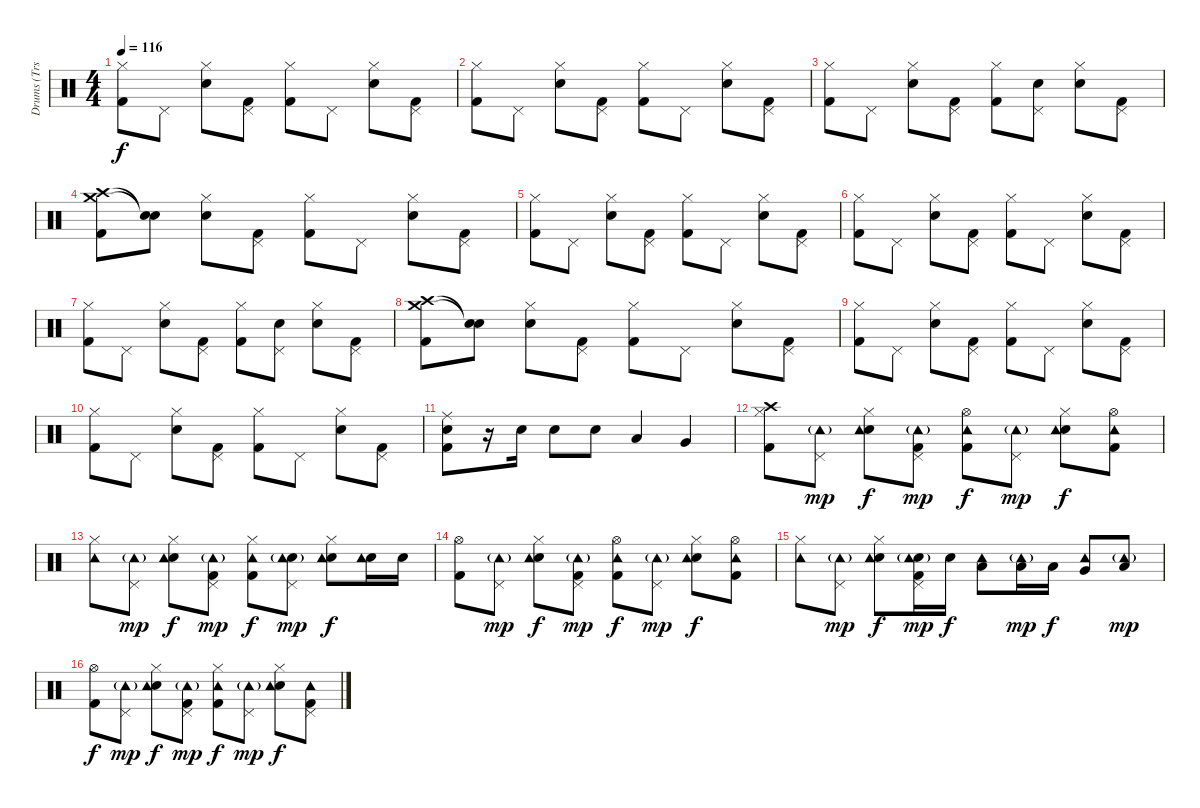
\track ("Drums (Trs. 7-8A, 10A/7-8B, 10B, 12-13B)" "Drums (Trs") {mute instrument percussion}
\staff {score}
\articulation defaults
\ts (4 4)
\tempo 116
\clef neutral
\ks c
("Hi-Hat (closed)" "Kick (hit) 2").8{dy f} "Pedal Hi-Hat (hit)".8 ("Electric Snare (hit)" "Hi-Hat (closed)").8 ("Pedal Hi-Hat (hit)" "Kick (hit) 2").8 ("Hi-Hat (closed)" "Kick (hit) 2").8 "Pedal Hi-Hat (hit)".8 ("Electric Snare (hit)" "Hi-Hat (closed)").8 ("Pedal Hi-Hat (hit)" "Kick (hit) 2").8 |
("Hi-Hat (closed)" "Kick (hit) 2").8 "Pedal Hi-Hat (hit)".8 ("Electric Snare (hit)" "Hi-Hat (closed)").8 ("Pedal Hi-Hat (hit)" "Kick (hit) 2").8 ("Hi-Hat (closed)" "Kick (hit) 2").8 "Pedal Hi-Hat (hit)".8 ("Electric Snare (hit)" "Hi-Hat (closed)").8 ("Pedal Hi-Hat (hit)" "Kick (hit) 2").8 |
("Hi-Hat (closed)" "Kick (hit) 2").8 "Pedal Hi-Hat (hit)".8 ("Electric Snare (hit)" "Hi-Hat (closed)").8 ("Pedal Hi-Hat (hit)" "Kick (hit) 2").8 ("Hi-Hat (closed)" "Kick (hit) 2").8 ("Electric Snare (hit)" "Pedal Hi-Hat (hit)").8 ("Electric Snare (hit)" "Hi-Hat (closed)").8 ("Pedal Hi-Hat (hit)" "Kick (hit) 2").8 |
("Crash medium (hit)" "Crash high (hit)" "Kick (hit) 2").8 ("Snare (hit)"{t} "Snare (hit)"{t}).8 ("Electric Snare (hit)" "Hi-Hat (closed)").8 ("Pedal Hi-Hat (hit)" "Kick (hit) 2").8 ("Hi-Hat (closed)" "Kick (hit) 2").8 "Pedal Hi-Hat (hit)".8 ("Electric Snare (hit)" "Hi-Hat (closed)").8 ("Pedal Hi-Hat (hit)" "Kick (hit) 2").8 |
("Hi-Hat (closed)" "Kick (hit) 2").8 "Pedal Hi-Hat (hit)".8 ("Electric Snare (hit)" "Hi-Hat (closed)").8 ("Pedal Hi-Hat (hit)" "Kick (hit) 2").8 ("Hi-Hat (closed)" "Kick (hit) 2").8 "Pedal Hi-Hat (hit)".8 ("Electric Snare (hit)" "Hi-Hat (closed)").8 ("Pedal Hi-Hat (hit)" "Kick (hit) 2").8 |
("Hi-Hat (closed)" "Kick (hit) 2").8 "Pedal Hi-Hat (hit)".8 ("Electric Snare (hit)" "Hi-Hat (closed)").8 ("Pedal Hi-Hat (hit)" "Kick (hit) 2").8 ("Hi-Hat (closed)" "Kick (hit) 2").8 "Pedal Hi-Hat (hit)".8 ("Electric Snare (hit)" "Hi-Hat (closed)").8 ("Pedal Hi-Hat (hit)" "Kick (hit) 2").8 |
("Hi-Hat (closed)" "Kick (hit) 2").8 "Pedal Hi-Hat (hit)".8 ("Electric Snare (hit)" "Hi-Hat (closed)").8 ("Pedal Hi-Hat (hit)" "Kick (hit) 2").8 ("Hi-Hat (closed)" "Kick (hit) 2").8 ("Electric Snare (hit)" "Pedal Hi-Hat (hit)").8 ("Electric Snare (hit)" "Hi-Hat (closed)").8 ("Pedal Hi-Hat (hit)" "Kick (hit) 2").8 |
("Crash medium (hit)" "Crash high (hit)" "Kick (hit) 2").8 ("Snare (hit)"{t} "Snare (hit)"{t}).8 ("Electric Snare (hit)" "Hi-Hat (closed)").8 ("Pedal Hi-Hat (hit)" "Kick (hit) 2").8 ("Hi-Hat (closed)" "Kick (hit) 2").8 "Pedal Hi-Hat (hit)".8 ("Electric Snare (hit)" "Hi-Hat (closed)").8 ("Pedal Hi-Hat (hit)" "Kick (hit) 2").8 |
("Hi-Hat (closed)" "Kick (hit) 2").8 "Pedal Hi-Hat (hit)".8 ("Electric Snare (hit)" "Hi-Hat (closed)").8 ("Pedal Hi-Hat (hit)" "Kick (hit) 2").8 ("Hi-Hat (closed)" "Kick (hit) 2").8 "Pedal Hi-Hat (hit)".8 ("Electric Snare (hit)" "Hi-Hat (closed)").8 ("Pedal Hi-Hat (hit)" "Kick (hit) 2").8 |
("Hi-Hat (closed)" "Kick (hit) 2").8 "Pedal Hi-Hat (hit)".8 ("Electric Snare (hit)" "Hi-Hat (closed)").8 ("Pedal Hi-Hat (hit)" "Kick (hit) 2").8 ("Hi-Hat (closed)" "Kick (hit) 2").8 "Pedal Hi-Hat (hit)".8 ("Electric Snare (hit)" "Hi-Hat (closed)").8 ("Pedal Hi-Hat (hit)" "Kick (hit) 2").8 |
("Ride (middle)" "Electric Snare (hit)" "Kick (hit) 2").8 r.16 "Electric Snare (hit)".16 "Electric Snare (hit)".8 "Electric Snare (hit)".8 "Low Tom (hit)".4 "Very Low Tom (hit)".4 |
("Crash high (hit)" "Hi-Hat (closed)" "Kick (hit) 2").8 ("Pedal Hi-Hat (hit)" "Tambourine (hit)"{g}).8{dy mp} ("Electric Snare (hit)" "Hi-Hat (closed)" "Tambourine (hit)").8{dy f} ("Pedal Hi-Hat (hit)" "Tambourine (hit)"{g} "Kick (hit) 2").8{dy mp} ("Hi-Hat (open)" "Tambourine (hit)" "Kick (hit) 2").8{dy f} ("Pedal Hi-Hat (hit)" "Tambourine (hit)"{g}).8{dy mp} ("Electric Snare (hit)" "Hi-Hat (closed)" "Tambourine (hit)").8{dy f} ("Hi-Hat (open)" "Tambourine (hit)" "Kick (hit) 2").8 |
("Hi-Hat (closed)" "Tambourine (hit)").8 ("Pedal Hi-Hat (hit)" "Tambourine (hit)"{g}).8{dy mp} ("Electric Snare (hit)" "Hi-Hat (closed)" "Tambourine (hit)").8{dy f} ("Pedal Hi-Hat (hit)" "Tambourine (hit)"{g} "Kick (hit) 2").8{dy mp} ("Hi-Hat (closed)" "Tambourine (hit)" "Kick (hit) 2").8{dy f} ("Electric Snare (hit)" "Pedal Hi-Hat (hit)" "Tambourine (hit)"{g}).8{dy mp} ("Electric Snare (hit)" "Hi-Hat (closed)" "Tambourine (hit)").8{dy f} ("Electric Snare (hit)" "Tambourine (hit)").16 "Electric Snare (hit)".16 |
("Hi-Hat (open)" "Kick (hit) 2").8 ("Pedal Hi-Hat (hit)" "Tambourine (hit)"{g}).8{dy mp} ("Electric Snare (hit)" "Hi-Hat (closed)" "Tambourine (hit)").8{dy f} ("Pedal Hi-Hat (hit)" "Tambourine (hit)"{g} "Kick (hit) 2").8{dy mp} ("Hi-Hat (open)" "Tambourine (hit)" "Kick (hit) 2").8{dy f} ("Pedal Hi-Hat (hit)" "Tambourine (hit)"{g}).8{dy mp} ("Electric Snare (hit)" "Hi-Hat (closed)" "Tambourine (hit)").8{dy f} ("Hi-Hat (open)" "Tambourine (hit)" "Kick (hit) 2").8 |
("Hi-Hat (closed)" "Tambourine (hit)").8 ("Pedal Hi-Hat (hit)" "Tambourine (hit)"{g}).8{dy mp} ("Electric Snare (hit)" "Hi-Hat (closed)" "Tambourine (hit)").8{dy f} ("Electric Snare (hit)" "Pedal Hi-Hat (hit)" "Tambourine (hit)"{g} "Kick (hit) 2").16{dy mp} "Electric Snare (hit)".16{dy f} ("Tambourine (hit)" "Low Tom (hit)").8 ("Tambourine (hit)"{g} "Low Tom (hit)").16{dy mp} "Low Tom (hit)".16{dy f} ("Tambourine (hit)" "Very Low Tom (hit)").8 ("Tambourine (hit)"{g} "Low Floor Tom (hit)").8{dy mp} |
("Hi-Hat (open)" "Kick (hit) 2").8{dy f} ("Pedal Hi-Hat (hit)" "Tambourine (hit)"{g}).8{dy mp} ("Electric Snare (hit)" "Hi-Hat (closed)" "Tambourine (hit)").8{dy f} ("Pedal Hi-Hat (hit)" "Tambourine (hit)"{g} "Kick (hit) 2").8{dy mp} ("Hi-Hat (closed)" "Tambourine (hit)" "Kick (hit) 2").8{dy f} ("Pedal Hi-Hat (hit)" "Tambourine (hit)"{g}).8{dy mp} ("Electric Snare (hit)" "Hi-Hat (closed)" "Tambourine (hit)").8{dy f} ("Pedal Hi-Hat (hit)" "Tambourine (hit)" "Kick (hit) 2").8
